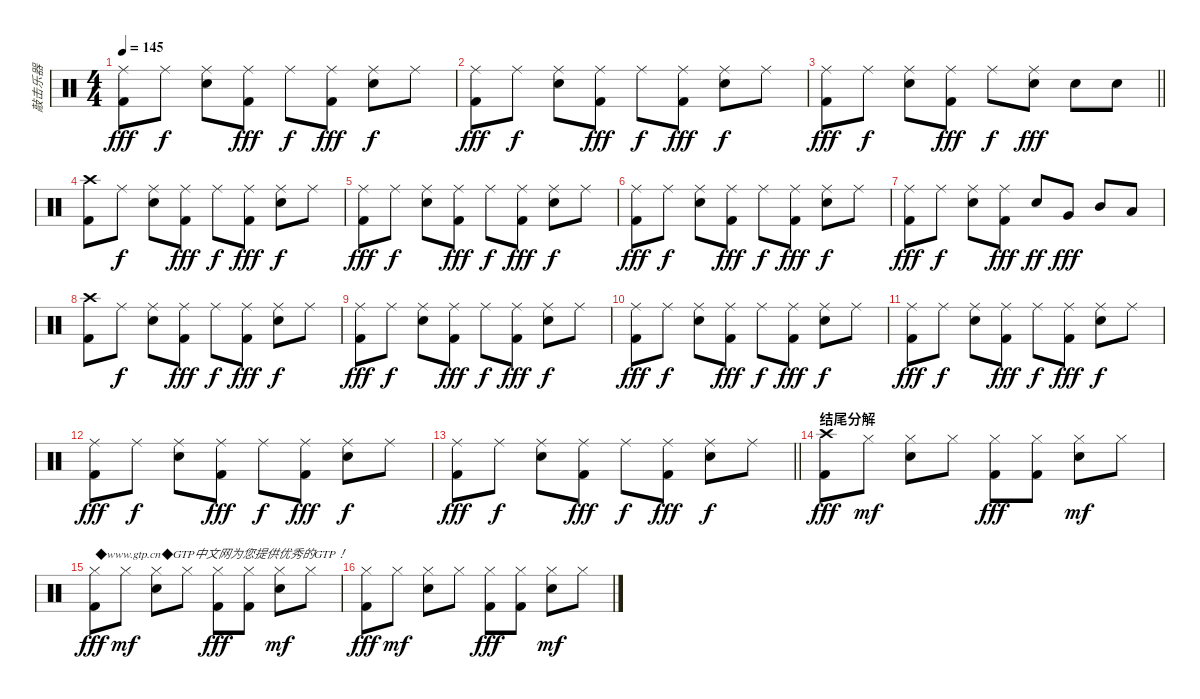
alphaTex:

\track ("敲击乐器" "敲击乐器") {instrument percussion}
\staff {score}
\articulation defaults
\ts (4 4)
\tempo 145
\clef neutral
\ks c
("Ride (middle)" "Kick (hit) 2").8{dy fff} "Ride (middle)".8{dy f} ("Ride (middle)" "Electric Snare (hit)").8 ("Ride (middle)" "Kick (hit) 2").8{dy fff} "Ride (middle)".8{dy f} ("Ride (middle)" "Kick (hit) 2").8{dy fff} ("Ride (middle)" "Electric Snare (hit)").8{dy f} "Ride (middle)".8 |
("Ride (middle)" "Kick (hit) 2").8{dy fff} "Ride (middle)".8{dy f} ("Ride (middle)" "Electric Snare (hit)").8 ("Ride (middle)" "Kick (hit) 2").8{dy fff} "Ride (middle)".8{dy f} ("Ride (middle)" "Kick (hit) 2").8{dy fff} ("Ride (middle)" "Electric Snare (hit)").8{dy f} "Ride (middle)".8 |
\barLineRight lightlight
("Ride (middle)" "Kick (hit) 2").8{dy fff} "Ride (middle)".8{dy f} ("Ride (middle)" "Electric Snare (hit)").8 ("Ride (middle)" "Kick (hit) 2").8{dy fff} "Ride (middle)".8{dy f} ("Ride (middle)" "Electric Snare (hit)").8{dy fff} "Electric Snare (hit)".8 "Electric Snare (hit)".8 |
("Crash high (hit)" "Kick (hit) 2").8 "Ride (middle)".8{dy f} ("Ride (middle)" "Electric Snare (hit)").8 ("Ride (middle)" "Kick (hit) 2").8{dy fff} "Ride (middle)".8{dy f} ("Ride (middle)" "Kick (hit) 2").8{dy fff} ("Ride (middle)" "Electric Snare (hit)").8{dy f} "Ride (middle)".8 |
("Ride (middle)" "Kick (hit) 2").8{dy fff} "Ride (middle)".8{dy f} ("Ride (middle)" "Electric Snare (hit)").8 ("Ride (middle)" "Kick (hit) 2").8{dy fff} "Ride (middle)".8{dy f} ("Ride (middle)" "Kick (hit) 2").8{dy fff} ("Ride (middle)" "Electric Snare (hit)").8{dy f} "Ride (middle)".8 |
("Ride (middle)" "Kick (hit) 2").8{dy fff} "Ride (middle)".8{dy f} ("Ride (middle)" "Electric Snare (hit)").8 ("Ride (middle)" "Kick (hit) 2").8{dy fff} "Ride (middle)".8{dy f} ("Ride (middle)" "Kick (hit) 2").8{dy fff} ("Ride (middle)" "Electric Snare (hit)").8{dy f} "Ride (middle)".8 |
("Ride (middle)" "Kick (hit) 2").8{dy fff} "Ride (middle)".8{dy f} ("Ride (middle)" "Electric Snare (hit)").8 ("Ride (middle)" "Kick (hit) 2").8{dy fff} "Electric Snare (hit)".8{dy ff} "Very Low Tom (hit)".8{dy fff} "Mid Tom (hit)".8 "Low Tom (hit)".8 |
("Crash high (hit)" "Kick (hit) 2").8 "Ride (middle)".8{dy f} ("Ride (middle)" "Electric Snare (hit)").8 ("Ride (middle)" "Kick (hit) 2").8{dy fff} "Ride (middle)".8{dy f} ("Ride (middle)" "Kick (hit) 2").8{dy fff} ("Ride (middle)" "Electric Snare (hit)").8{dy f} "Ride (middle)".8 |
("Ride (middle)" "Kick (hit) 2").8{dy fff} "Ride (middle)".8{dy f} ("Ride (middle)" "Electric Snare (hit)").8 ("Ride (middle)" "Kick (hit) 2").8{dy fff} "Ride (middle)".8{dy f} ("Ride (middle)" "Kick (hit) 2").8{dy fff} ("Ride (middle)" "Electric Snare (hit)").8{dy f} "Ride (middle)".8 |
("Ride (middle)" "Kick (hit) 2").8{dy fff} "Ride (middle)".8{dy f} ("Ride (middle)" "Electric Snare (hit)").8 ("Ride (middle)" "Kick (hit) 2").8{dy fff} "Ride (middle)".8{dy f} ("Ride (middle)" "Kick (hit) 2").8{dy fff} ("Ride (middle)" "Electric Snare (hit)").8{dy f} "Ride (middle)".8 |
("Ride (middle)" "Kick (hit) 2").8{dy fff} "Ride (middle)".8{dy f} ("Ride (middle)" "Electric Snare (hit)").8 ("Ride (middle)" "Kick (hit) 2").8{dy fff} "Ride (middle)".8{dy f} ("Ride (middle)" "Kick (hit) 2").8{dy fff} ("Ride (middle)" "Electric Snare (hit)").8{dy f} "Ride (middle)".8 |
("Ride (middle)" "Kick (hit) 2").8{dy fff} "Ride (middle)".8{dy f} ("Ride (middle)" "Electric Snare (hit)").8 ("Ride (middle)" "Kick (hit) 2").8{dy fff} "Ride (middle)".8{dy f} ("Ride (middle)" "Kick (hit) 2").8{dy fff} ("Ride (middle)" "Electric Snare (hit)").8{dy f} "Ride (middle)".8 |
\barLineRight lightlight
("Ride (middle)" "Kick (hit) 2").8{dy fff} "Ride (middle)".8{dy f} ("Ride (middle)" "Electric Snare (hit)").8 ("Ride (middle)" "Kick (hit) 2").8{dy fff} "Ride (middle)".8{dy f} ("Ride (middle)" "Kick (hit) 2").8{dy fff} ("Ride (middle)" "Electric Snare (hit)").8{dy f} "Ride (middle)".8 |
\section ("" "结尾分解")
("Crash high (hit)" "Kick (hit) 2").8{dy fff} "Hi-Hat (closed)".8{dy mf} ("Hi-Hat (closed)" "Electric Snare (hit)").8 "Hi-Hat (closed)".8 ("Hi-Hat (closed)" "Kick (hit) 2").8{dy fff} ("Hi-Hat (closed)" "Kick (hit) 2").8 ("Hi-Hat (closed)" "Electric Snare (hit)").8{dy mf} "Hi-Hat (closed)".8 |
("Hi-Hat (closed)" "Kick (hit) 2").8{txt "◆www.gtp.cn◆GTP中文网为您提供优秀的GTP！" dy fff} "Hi-Hat (closed)".8{dy mf} ("Hi-Hat (closed)" "Electric Snare (hit)").8 "Hi-Hat (closed)".8 ("Hi-Hat (closed)" "Kick (hit) 2").8{dy fff} ("Hi-Hat (closed)" "Kick (hit) 2").8 ("Hi-Hat (closed)" "Electric Snare (hit)").8{dy mf} "Hi-Hat (closed)".8 |
("Hi-Hat (closed)" "Kick (hit) 2").8{dy fff} "Hi-Hat (closed)".8{dy mf} ("Hi-Hat (closed)" "Electric Snare (hit)").8 "Hi-Hat (closed)".8 ("Hi-Hat (closed)" "Kick (hit) 2").8{dy fff} ("Hi-Hat (closed)" "Kick (hit) 2").8 ("Hi-Hat (closed)" "Electric Snare (hit)").8{dy mf} "Hi-Hat (closed)".8
